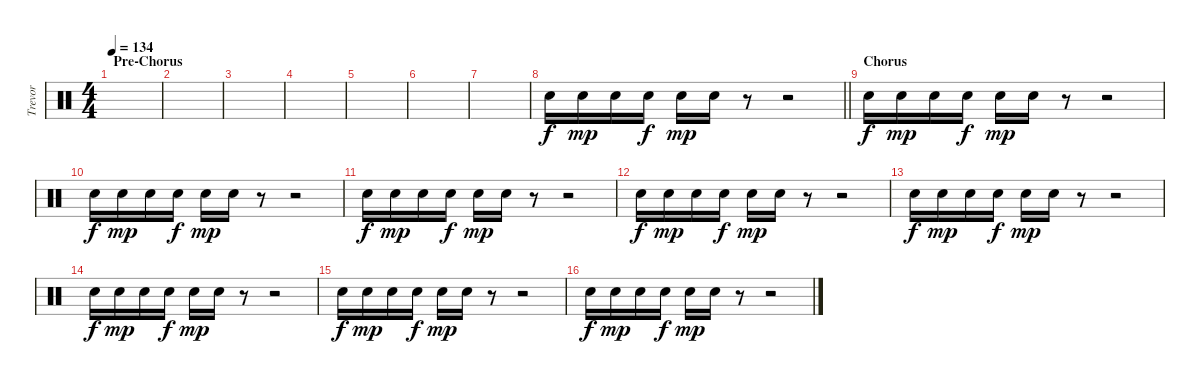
\track ("Trevor" "Trevor") {instrument percussion}
\staff {score}
\articulation defaults
\ts (4 4)
\section ("" "Pre-Chorus")
\tempo 134
\clef neutral
\ks c
|
|
|
|
|
|
|
\barLineRight lightlight "Snare (hit) 2".16{dy f} "Snare (hit) 2".16{dy mp} "Snare (hit) 2".16 "Snare (hit) 2".16{dy f} "Snare (hit) 2".16{dy mp} "Snare (hit) 2".16
r.8 r.2 |
\section ("" "Chorus")
"Snare (hit) 2".16{dy f} "Snare (hit) 2".16{dy mp} "Snare (hit) 2".16 "Snare (hit) 2".16{dy f} "Snare (hit) 2".16{dy mp} "Snare (hit) 2".16 r.8 r.2 |
"Snare (hit) 2".16{dy f} "Snare (hit) 2".16{dy mp} "Snare (hit) 2".16 "Snare (hit) 2".16{dy f} "Snare (hit) 2".16{dy mp} "Snare (hit) 2".16 r.8 r.2 |
"Snare (hit) 2".16{dy f} "Snare (hit) 2".16{dy mp} "Snare (hit) 2".16 "Snare (hit) 2".16{dy f} "Snare (hit) 2".16{dy mp} "Snare (hit) 2".16 r.8 r.2 |
"Snare (hit) 2".16{dy f} "Snare (hit) 2".16{dy mp} "Snare (hit) 2".16 "Snare (hit) 2".16{dy f} "Snare (hit) 2".16{dy mp} "Snare (hit) 2".16 r.8 r.2 |
"Snare (hit) 2".16{dy f} "Snare (hit) 2".16{dy mp} "Snare (hit) 2".16 "Snare (hit) 2".16{dy f} "Snare (hit) 2".16{dy mp} "Snare (hit) 2".16 r.8 r.2 |
"Snare (hit) 2".16{dy f} "Snare (hit) 2".16{dy mp} "Snare (hit) 2".16 "Snare (hit) 2".16{dy f} "Snare (hit) 2".16{dy mp} "Snare (hit) 2".16 r.8 r.2 |
"Snare (hit) 2".16{dy f} "Snare (hit) 2".16{dy mp} "Snare (hit) 2".16 "Snare (hit) 2".16{dy f} "Snare (hit) 2".16{dy mp} "Snare (hit) 2".16 r.8 r.2 |
"Snare (hit) 2".16{dy f} "Snare (hit) 2".16{dy mp} "Snare (hit) 2".16 "Snare (hit) 2".16{dy f} "Snare (hit) 2".16{dy mp} "Snare (hit) 2".16 r.8 r.2
